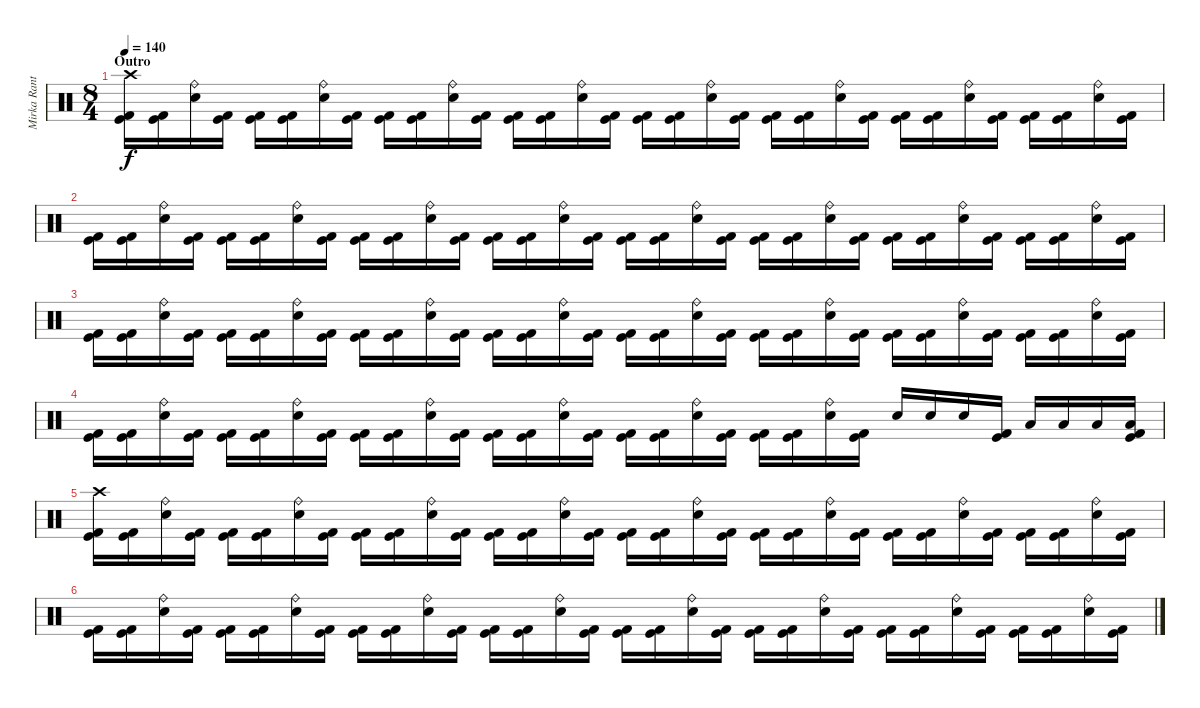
\track ("Mirka Rantanen" "Mirka Rant") {instrument percussion}
\staff {score}
\articulation defaults
\ts (8 4)
\section ("" "Outro")
\tempo 140
\clef neutral
\ks c
("Crash high (hit)" "Kick (hit) 2" "Kick (hit)").16{dy f} ("Kick (hit) 2" "Kick (hit)").16 ("Ride (bell)" "Electric Snare (hit)").16 ("Kick (hit) 2" "Kick (hit)").16 ("Kick (hit) 2" "Kick (hit)").16 ("Kick (hit) 2" "Kick (hit)").16 ("Ride (bell)" "Electric Snare (hit)").16 ("Kick (hit) 2" "Kick (hit)").16 ("Kick (hit) 2" "Kick (hit)").16 ("Kick (hit) 2" "Kick (hit)").16 ("Ride (bell)" "Electric Snare (hit)").16 ("Kick (hit) 2" "Kick (hit)").16 ("Kick (hit) 2" "Kick (hit)").16 ("Kick (hit) 2" "Kick (hit)").16 ("Ride (bell)" "Electric Snare (hit)").16 ("Kick (hit) 2" "Kick (hit)").16 ("Kick (hit) 2" "Kick (hit)").16 ("Kick (hit) 2" "Kick (hit)").16 ("Ride (bell)" "Electric Snare (hit)").16 ("Kick (hit) 2" "Kick (hit)").16 ("Kick (hit) 2" "Kick (hit)").16 ("Kick (hit) 2" "Kick (hit)").16 ("Ride (bell)" "Electric Snare (hit)").16 ("Kick (hit) 2" "Kick (hit)").16 ("Kick (hit) 2" "Kick (hit)").16 ("Kick (hit) 2" "Kick (hit)").16 ("Ride (bell)" "Electric Snare (hit)").16 ("Kick (hit) 2" "Kick (hit)").16 ("Kick (hit) 2" "Kick (hit)").16 ("Kick (hit) 2" "Kick (hit)").16 ("Ride (bell)" "Electric Snare (hit)").16 ("Kick (hit) 2" "Kick (hit)").16 |
("Kick (hit) 2" "Kick (hit)").16 ("Kick (hit) 2" "Kick (hit)").16 ("Ride (bell)" "Electric Snare (hit)").16 ("Kick (hit) 2" "Kick (hit)").16 ("Kick (hit) 2" "Kick (hit)").16 ("Kick (hit) 2" "Kick (hit)").16 ("Ride (bell)" "Electric Snare (hit)").16 ("Kick (hit) 2" "Kick (hit)").16 ("Kick (hit) 2" "Kick (hit)").16 ("Kick (hit) 2" "Kick (hit)").16 ("Ride (bell)" "Electric Snare (hit)").16 ("Kick (hit) 2" "Kick (hit)").16 ("Kick (hit) 2" "Kick (hit)").16 ("Kick (hit) 2" "Kick (hit)").16 ("Ride (bell)" "Electric Snare (hit)").16 ("Kick (hit) 2" "Kick (hit)").16 ("Kick (hit) 2" "Kick (hit)").16 ("Kick (hit) 2" "Kick (hit)").16 ("Ride (bell)" "Electric Snare (hit)").16 ("Kick (hit) 2" "Kick (hit)").16 ("Kick (hit) 2" "Kick (hit)").16 ("Kick (hit) 2" "Kick (hit)").16 ("Ride (bell)" "Electric Snare (hit)").16 ("Kick (hit) 2" "Kick (hit)").16 ("Kick (hit) 2" "Kick (hit)").16 ("Kick (hit) 2" "Kick (hit)").16 ("Ride (bell)" "Electric Snare (hit)").16 ("Kick (hit) 2" "Kick (hit)").16 ("Kick (hit) 2" "Kick (hit)").16 ("Kick (hit) 2" "Kick (hit)").16 ("Ride (bell)" "Electric Snare (hit)").16 ("Kick (hit) 2" "Kick (hit)").16 |
("Kick (hit) 2" "Kick (hit)").16 ("Kick (hit) 2" "Kick (hit)").16 ("Ride (bell)" "Electric Snare (hit)").16 ("Kick (hit) 2" "Kick (hit)").16 ("Kick (hit) 2" "Kick (hit)").16 ("Kick (hit) 2" "Kick (hit)").16 ("Ride (bell)" "Electric Snare (hit)").16 ("Kick (hit) 2" "Kick (hit)").16 ("Kick (hit) 2" "Kick (hit)").16 ("Kick (hit) 2" "Kick (hit)").16 ("Ride (bell)" "Electric Snare (hit)").16 ("Kick (hit) 2" "Kick (hit)").16 ("Kick (hit) 2" "Kick (hit)").16 ("Kick (hit) 2" "Kick (hit)").16 ("Ride (bell)" "Electric Snare (hit)").16 ("Kick (hit) 2" "Kick (hit)").16 ("Kick (hit) 2" "Kick (hit)").16 ("Kick (hit) 2" "Kick (hit)").16 ("Ride (bell)" "Electric Snare (hit)").16 ("Kick (hit) 2" "Kick (hit)").16 ("Kick (hit) 2" "Kick (hit)").16 ("Kick (hit) 2" "Kick (hit)").16 ("Ride (bell)" "Electric Snare (hit)").16 ("Kick (hit) 2" "Kick (hit)").16 ("Kick (hit) 2" "Kick (hit)").16 ("Kick (hit) 2" "Kick (hit)").16 ("Ride (bell)" "Electric Snare (hit)").16 ("Kick (hit) 2" "Kick (hit)").16 ("Kick (hit) 2" "Kick (hit)").16 ("Kick (hit) 2" "Kick (hit)").16 ("Ride (bell)" "Electric Snare (hit)").16 ("Kick (hit) 2" "Kick (hit)").16 |
("Kick (hit) 2" "Kick (hit)").16 ("Kick (hit) 2" "Kick (hit)").16 ("Ride (bell)" "Electric Snare (hit)").16 ("Kick (hit) 2" "Kick (hit)").16 ("Kick (hit) 2" "Kick (hit)").16 ("Kick (hit) 2" "Kick (hit)").16 ("Ride (bell)" "Electric Snare (hit)").16 ("Kick (hit) 2" "Kick (hit)").16 ("Kick (hit) 2" "Kick (hit)").16 ("Kick (hit) 2" "Kick (hit)").16 ("Ride (bell)" "Electric Snare (hit)").16 ("Kick (hit) 2" "Kick (hit)").16 ("Kick (hit) 2" "Kick (hit)").16 ("Kick (hit) 2" "Kick (hit)").16 ("Ride (bell)" "Electric Snare (hit)").16 ("Kick (hit) 2" "Kick (hit)").16 ("Kick (hit) 2" "Kick (hit)").16 ("Kick (hit) 2" "Kick (hit)").16 ("Ride (bell)" "Electric Snare (hit)").16 ("Kick (hit) 2" "Kick (hit)").16 ("Kick (hit) 2" "Kick (hit)").16 ("Kick (hit) 2" "Kick (hit)").16 ("Ride (bell)" "Electric Snare (hit)").16 ("Kick (hit) 2" "Kick (hit)").16 "Electric Snare (hit)".16 "Electric Snare (hit)".16 "Electric Snare (hit)".16 ("Kick (hit) 2" "Kick (hit)").16 "Low Tom (hit)".16 "Low Tom (hit)".16 "Low Tom (hit)".16 ("Low Tom (hit)" "Kick (hit) 2" "Kick (hit)").16 |
("Crash high (hit)" "Kick (hit) 2" "Kick (hit)").16 ("Kick (hit) 2" "Kick (hit)").16 ("Ride (bell)" "Electric Snare (hit)").16 ("Kick (hit) 2" "Kick (hit)").16 ("Kick (hit) 2" "Kick (hit)").16 ("Kick (hit) 2" "Kick (hit)").16 ("Ride (bell)" "Electric Snare (hit)").16 ("Kick (hit) 2" "Kick (hit)").16 ("Kick (hit) 2" "Kick (hit)").16 ("Kick (hit) 2" "Kick (hit)").16 ("Ride (bell)" "Electric Snare (hit)").16 ("Kick (hit) 2" "Kick (hit)").16 ("Kick (hit) 2" "Kick (hit)").16 ("Kick (hit) 2" "Kick (hit)").16 ("Ride (bell)" "Electric Snare (hit)").16 ("Kick (hit) 2" "Kick (hit)").16 ("Kick (hit) 2" "Kick (hit)").16 ("Kick (hit) 2" "Kick (hit)").16 ("Ride (bell)" "Electric Snare (hit)").16 ("Kick (hit) 2" "Kick (hit)").16 ("Kick (hit) 2" "Kick (hit)").16 ("Kick (hit) 2" "Kick (hit)").16 ("Ride (bell)" "Electric Snare (hit)").16 ("Kick (hit) 2" "Kick (hit)").16 ("Kick (hit) 2" "Kick (hit)").16 ("Kick (hit) 2" "Kick (hit)").16 ("Ride (bell)" "Electric Snare (hit)").16 ("Kick (hit) 2" "Kick (hit)").16 ("Kick (hit) 2" "Kick (hit)").16 ("Kick (hit) 2" "Kick (hit)").16 ("Ride (bell)" "Electric Snare (hit)").16 ("Kick (hit) 2" "Kick (hit)").16 |
("Kick (hit) 2" "Kick (hit)").16 ("Kick (hit) 2" "Kick (hit)").16 ("Ride (bell)" "Electric Snare (hit)").16 ("Kick (hit) 2" "Kick (hit)").16 ("Kick (hit) 2" "Kick (hit)").16 ("Kick (hit) 2" "Kick (hit)").16 ("Ride (bell)" "Electric Snare (hit)").16 ("Kick (hit) 2" "Kick (hit)").16 ("Kick (hit) 2" "Kick (hit)").16 ("Kick (hit) 2" "Kick (hit)").16 ("Ride (bell)" "Electric Snare (hit)").16 ("Kick (hit) 2" "Kick (hit)").16 ("Kick (hit) 2" "Kick (hit)").16 ("Kick (hit) 2" "Kick (hit)").16 ("Ride (bell)" "Electric Snare (hit)").16 ("Kick (hit) 2" "Kick (hit)").16 ("Kick (hit) 2" "Kick (hit)").16 ("Kick (hit) 2" "Kick (hit)").16 ("Ride (bell)" "Electric Snare (hit)").16 ("Kick (hit) 2" "Kick (hit)").16 ("Kick (hit) 2" "Kick (hit)").16 ("Kick (hit) 2" "Kick (hit)").16 ("Ride (bell)" "Electric Snare (hit)").16 ("Kick (hit) 2" "Kick (hit)").16 ("Kick (hit) 2" "Kick (hit)").16 ("Kick (hit) 2" "Kick (hit)").16 ("Ride (bell)" "Electric Snare (hit)").16 ("Kick (hit) 2" "Kick (hit)").16 ("Kick (hit) 2" "Kick (hit)").16 ("Kick (hit) 2" "Kick (hit)").16 ("Ride (bell)" "Electric Snare (hit)").16 ("Kick (hit) 2" "Kick (hit)").16
